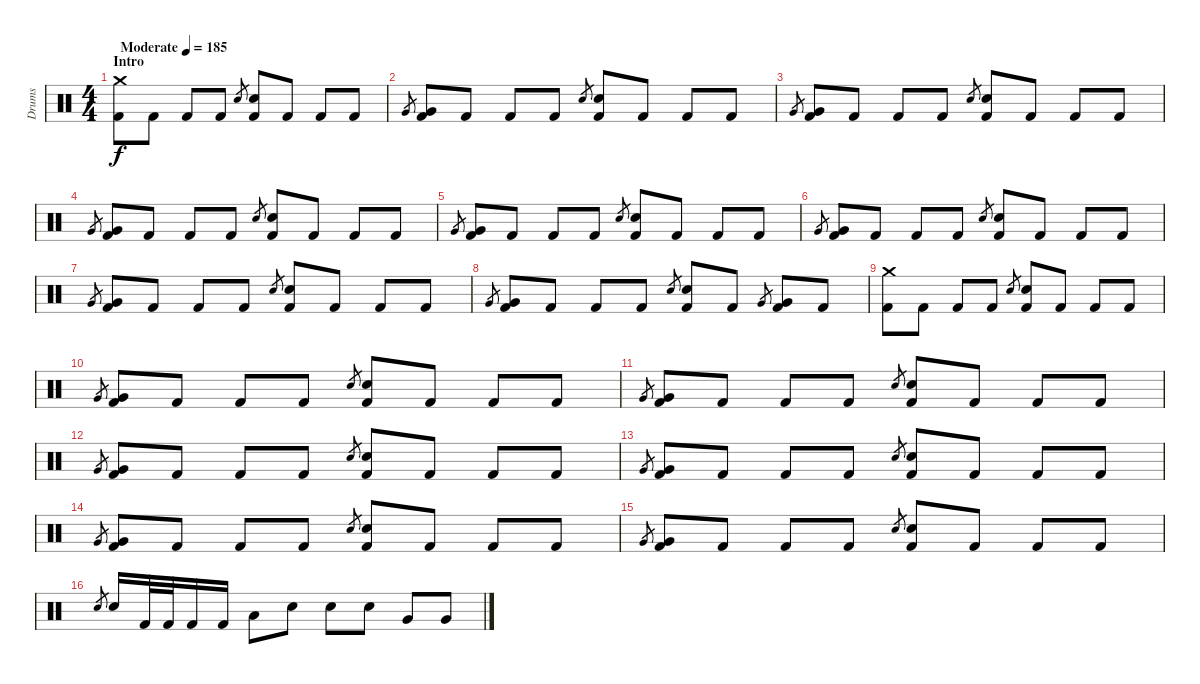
\track ("Drums" "Drums") {instrument percussion}
\staff {score}
\articulation defaults
\ts (4 4)
\section ("" "Intro")
\tempo (185 "Moderate")
\clef neutral
\ks c
("Crash medium (hit)" "Kick (hit) 2").8{dy f} "Kick (hit) 2".8 "Kick (hit) 2".8 "Kick (hit) 2".8 "Electric Snare (hit)".8{gr} ("Electric Snare (hit)" "Kick (hit) 2").8 "Kick (hit) 2".8 "Kick (hit) 2".8 "Kick (hit) 2".8 |
"Very Low Tom (hit)".8{gr} ("Very Low Tom (hit)" "Kick (hit) 2").8 "Kick (hit) 2".8 "Kick (hit) 2".8 "Kick (hit) 2".8 "Electric Snare (hit)".8{gr} ("Electric Snare (hit)" "Kick (hit) 2").8 "Kick (hit) 2".8 "Kick (hit) 2".8 "Kick (hit) 2".8 |
"Very Low Tom (hit)".8{gr} ("Very Low Tom (hit)" "Kick (hit) 2").8 "Kick (hit) 2".8 "Kick (hit) 2".8 "Kick (hit) 2".8 "Electric Snare (hit)".8{gr} ("Electric Snare (hit)" "Kick (hit) 2").8 "Kick (hit) 2".8 "Kick (hit) 2".8 "Kick (hit) 2".8 |
"Very Low Tom (hit)".8{gr} ("Very Low Tom (hit)" "Kick (hit) 2").8 "Kick (hit) 2".8 "Kick (hit) 2".8 "Kick (hit) 2".8 "Electric Snare (hit)".8{gr} ("Electric Snare (hit)" "Kick (hit) 2").8 "Kick (hit) 2".8 "Kick (hit) 2".8 "Kick (hit) 2".8 |
"Very Low Tom (hit)".8{gr} ("Very Low Tom (hit)" "Kick (hit) 2").8 "Kick (hit) 2".8 "Kick (hit) 2".8 "Kick (hit) 2".8 "Electric Snare (hit)".8{gr} ("Electric Snare (hit)" "Kick (hit) 2").8 "Kick (hit) 2".8 "Kick (hit) 2".8 "Kick (hit) 2".8 |
"Very Low Tom (hit)".8{gr} ("Very Low Tom (hit)" "Kick (hit) 2").8 "Kick (hit) 2".8 "Kick (hit) 2".8 "Kick (hit) 2".8 "Electric Snare (hit)".8{gr} ("Electric Snare (hit)" "Kick (hit) 2").8 "Kick (hit) 2".8 "Kick (hit) 2".8 "Kick (hit) 2".8 |
"Very Low Tom (hit)".8{gr} ("Very Low Tom (hit)" "Kick (hit) 2").8 "Kick (hit) 2".8 "Kick (hit) 2".8 "Kick (hit) 2".8 "Electric Snare (hit)".8{gr} ("Electric Snare (hit)" "Kick (hit) 2").8 "Kick (hit) 2".8 "Kick (hit) 2".8 "Kick (hit) 2".8 |
"Very Low Tom (hit)".8{gr} ("Very Low Tom (hit)" "Kick (hit) 2").8 "Kick (hit) 2".8 "Kick (hit) 2".8 "Kick (hit) 2".8 "Electric Snare (hit)".8{gr} ("Electric Snare (hit)" "Kick (hit) 2").8 "Kick (hit) 2".8 "Very Low Tom (hit)".8{gr} ("Very Low Tom (hit)" "Kick (hit) 2").8 "Kick (hit) 2".8 |
("Crash medium (hit)" "Kick (hit) 2").8 "Kick (hit) 2".8 "Kick (hit) 2".8 "Kick (hit) 2".8 "Electric Snare (hit)".8{gr} ("Electric Snare (hit)" "Kick (hit) 2").8 "Kick (hit) 2".8 "Kick (hit) 2".8 "Kick (hit) 2".8 |
"Very Low Tom (hit)".8{gr} ("Very Low Tom (hit)" "Kick (hit) 2").8 "Kick (hit) 2".8 "Kick (hit) 2".8 "Kick (hit) 2".8 "Electric Snare (hit)".8{gr} ("Electric Snare (hit)" "Kick (hit) 2").8 "Kick (hit) 2".8 "Kick (hit) 2".8 "Kick (hit) 2".8 |
"Very Low Tom (hit)".8{gr} ("Very Low Tom (hit)" "Kick (hit) 2").8 "Kick (hit) 2".8 "Kick (hit) 2".8 "Kick (hit) 2".8 "Electric Snare (hit)".8{gr} ("Electric Snare (hit)" "Kick (hit) 2").8 "Kick (hit) 2".8 "Kick (hit) 2".8 "Kick (hit) 2".8 |
"Very Low Tom (hit)".8{gr} ("Very Low Tom (hit)" "Kick (hit) 2").8 "Kick (hit) 2".8 "Kick (hit) 2".8 "Kick (hit) 2".8 "Electric Snare (hit)".8{gr} ("Electric Snare (hit)" "Kick (hit) 2").8 "Kick (hit) 2".8 "Kick (hit) 2".8 "Kick (hit) 2".8 |
"Very Low Tom (hit)".8{gr} ("Very Low Tom (hit)" "Kick (hit) 2").8 "Kick (hit) 2".8 "Kick (hit) 2".8 "Kick (hit) 2".8 "Electric Snare (hit)".8{gr} ("Electric Snare (hit)" "Kick (hit) 2").8 "Kick (hit) 2".8 "Kick (hit) 2".8 "Kick (hit) 2".8 |
"Very Low Tom (hit)".8{gr} ("Very Low Tom (hit)" "Kick (hit) 2").8 "Kick (hit) 2".8 "Kick (hit) 2".8 "Kick (hit) 2".8 "Electric Snare (hit)".8{gr} ("Electric Snare (hit)" "Kick (hit) 2").8 "Kick (hit) 2".8 "Kick (hit) 2".8 "Kick (hit) 2".8 |
"Very Low Tom (hit)".8{gr} ("Very Low Tom (hit)" "Kick (hit) 2").8 "Kick (hit) 2".8 "Kick (hit) 2".8 "Kick (hit) 2".8 "Electric Snare (hit)".8{gr} ("Electric Snare (hit)" "Kick (hit) 2").8 "Kick (hit) 2".8 "Kick (hit) 2".8 "Kick (hit) 2".8 |
"Electric Snare (hit)".8{gr} "Electric Snare (hit)".16 "Kick (hit) 2".32 "Kick (hit) 2".32 "Kick (hit) 2".16 "Kick (hit) 2".16 "Low Tom (hit)".8 "Electric Snare (hit)".8 "Electric Snare (hit)".8 "Electric Snare (hit)".8 "Very Low Tom (hit)".8 "Very Low Tom (hit)".8
